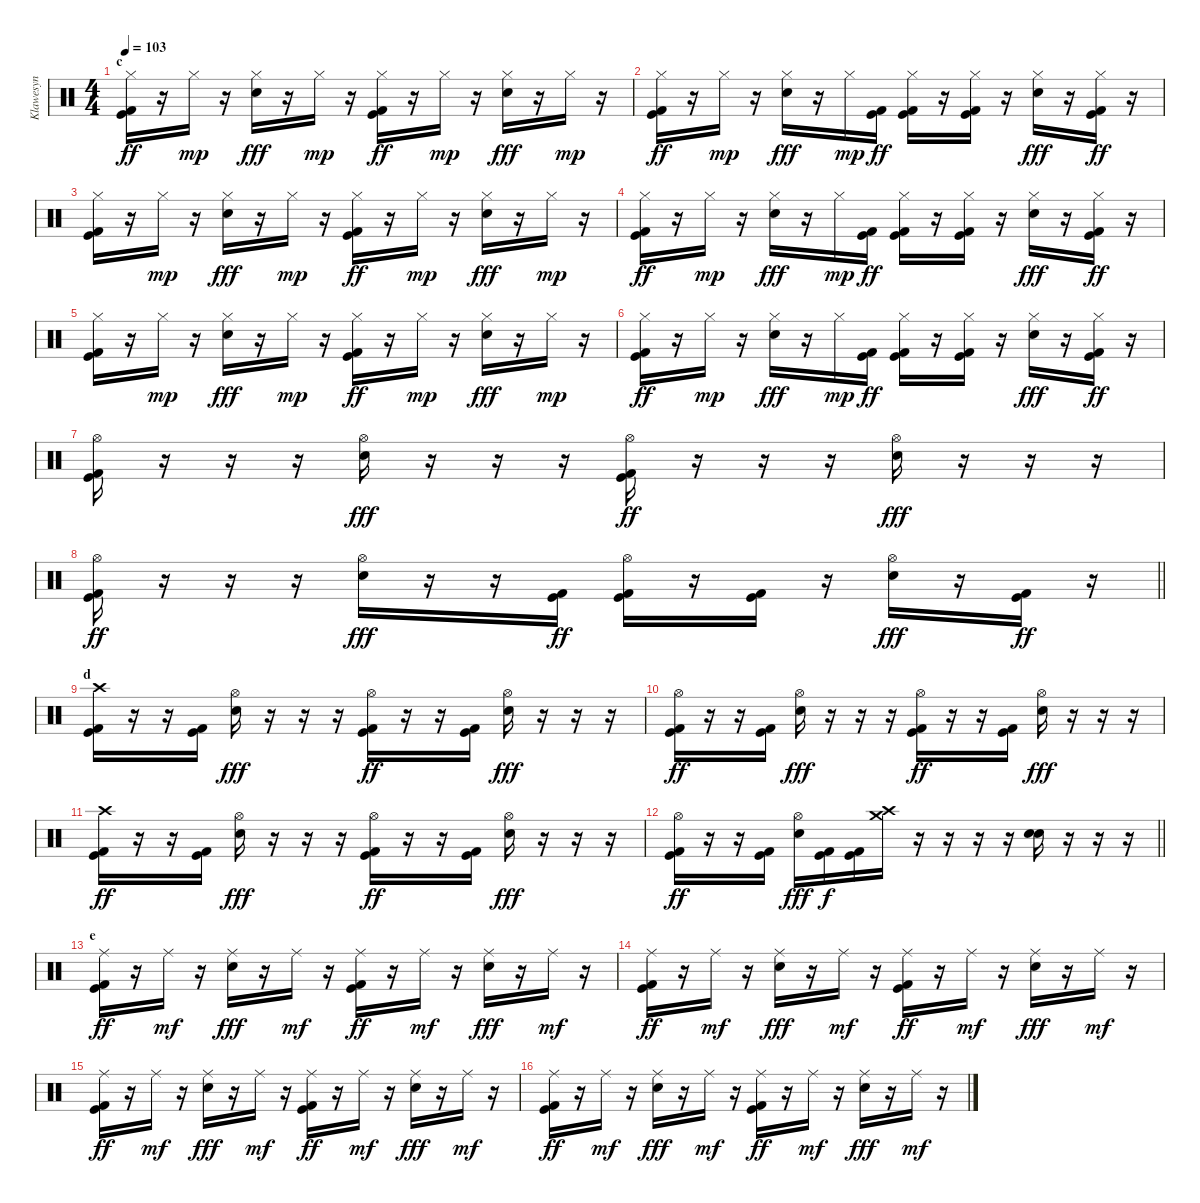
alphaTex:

\track ("Klawesyn" "Klawesyn") {instrument percussion}
\staff {score}
\articulation defaults
\ts (4 4)
\section ("" "c")
\tempo 103
\clef neutral
\ks c
("Hi-Hat (closed)" "Kick (hit)" "Kick (hit) 2").16{dy ff} r.16 "Hi-Hat (closed)".16{dy mp} r.16 ("Hi-Hat (closed)" "Electric Snare (hit)").16{dy fff} r.16 "Hi-Hat (closed)".16{dy mp} r.16 ("Hi-Hat (closed)" "Kick (hit)" "Kick (hit) 2").16{dy ff} r.16 "Hi-Hat (closed)".16{dy mp} r.16 ("Hi-Hat (closed)" "Electric Snare (hit)").16{dy fff} r.16 "Hi-Hat (closed)".16{dy mp} r.16 |
("Hi-Hat (closed)" "Kick (hit)" "Kick (hit) 2").16{dy ff} r.16 "Hi-Hat (closed)".16{dy mp} r.16 ("Hi-Hat (closed)" "Electric Snare (hit)").16{dy fff} r.16 "Hi-Hat (closed)".16{dy mp} ("Kick (hit)" "Kick (hit) 2").16{dy ff} ("Hi-Hat (closed)" "Kick (hit)" "Kick (hit) 2").16 r.16 ("Hi-Hat (closed)" "Kick (hit)" "Kick (hit) 2").16 r.16 ("Hi-Hat (closed)" "Electric Snare (hit)").16{dy fff} r.16 ("Hi-Hat (closed)" "Kick (hit)" "Kick (hit) 2").16{dy ff} r.16 |
("Hi-Hat (closed)" "Kick (hit)" "Kick (hit) 2").16 r.16 "Hi-Hat (closed)".16{dy mp} r.16 ("Hi-Hat (closed)" "Electric Snare (hit)").16{dy fff} r.16 "Hi-Hat (closed)".16{dy mp} r.16 ("Hi-Hat (closed)" "Kick (hit)" "Kick (hit) 2").16{dy ff} r.16 "Hi-Hat (closed)".16{dy mp} r.16 ("Hi-Hat (closed)" "Electric Snare (hit)").16{dy fff} r.16 "Hi-Hat (closed)".16{dy mp} r.16 |
("Hi-Hat (closed)" "Kick (hit)" "Kick (hit) 2").16{dy ff} r.16 "Hi-Hat (closed)".16{dy mp} r.16 ("Hi-Hat (closed)" "Electric Snare (hit)").16{dy fff} r.16 "Hi-Hat (closed)".16{dy mp} ("Kick (hit)" "Kick (hit) 2").16{dy ff} ("Hi-Hat (closed)" "Kick (hit)" "Kick (hit) 2").16 r.16 ("Hi-Hat (closed)" "Kick (hit)" "Kick (hit) 2").16 r.16 ("Hi-Hat (closed)" "Electric Snare (hit)").16{dy fff} r.16 ("Hi-Hat (closed)" "Kick (hit)" "Kick (hit) 2").16{dy ff} r.16 |
("Hi-Hat (closed)" "Kick (hit)" "Kick (hit) 2").16 r.16 "Hi-Hat (closed)".16{dy mp} r.16 ("Hi-Hat (closed)" "Electric Snare (hit)").16{dy fff} r.16 "Hi-Hat (closed)".16{dy mp} r.16 ("Hi-Hat (closed)" "Kick (hit)" "Kick (hit) 2").16{dy ff} r.16 "Hi-Hat (closed)".16{dy mp} r.16 ("Hi-Hat (closed)" "Electric Snare (hit)").16{dy fff} r.16 "Hi-Hat (closed)".16{dy mp} r.16 |
("Hi-Hat (closed)" "Kick (hit)" "Kick (hit) 2").16{dy ff} r.16 "Hi-Hat (closed)".16{dy mp} r.16 ("Hi-Hat (closed)" "Electric Snare (hit)").16{dy fff} r.16 "Hi-Hat (closed)".16{dy mp} ("Kick (hit)" "Kick (hit) 2").16{dy ff} ("Hi-Hat (closed)" "Kick (hit)" "Kick (hit) 2").16 r.16 ("Hi-Hat (closed)" "Kick (hit)" "Kick (hit) 2").16 r.16 ("Hi-Hat (closed)" "Electric Snare (hit)").16{dy fff} r.16 ("Hi-Hat (closed)" "Kick (hit)" "Kick (hit) 2").16{dy ff} r.16 |
("Hi-Hat (open)" "Kick (hit)" "Kick (hit) 2").16 r.16 r.16 r.16 ("Hi-Hat (open)" "Electric Snare (hit)").16{dy fff} r.16 r.16 r.16 ("Hi-Hat (open)" "Kick (hit)" "Kick (hit) 2").16{dy ff} r.16 r.16 r.16 ("Hi-Hat (open)" "Electric Snare (hit)").16{dy fff} r.16 r.16 r.16 |
\barLineRight lightlight
("Hi-Hat (open)" "Kick (hit)" "Kick (hit) 2").16{dy ff} r.16 r.16 r.16 ("Hi-Hat (open)" "Electric Snare (hit)").16{dy fff} r.16 r.16 ("Kick (hit)" "Kick (hit) 2").16{dy ff} ("Hi-Hat (open)" "Kick (hit)" "Kick (hit) 2").16 r.16 ("Kick (hit)" "Kick (hit) 2").16 r.16 ("Hi-Hat (open)" "Electric Snare (hit)").16{dy fff} r.16 ("Kick (hit)" "Kick (hit) 2").16{dy ff} r.16 |
\section ("" "d")
("Crash high (hit)" "Kick (hit)" "Kick (hit) 2").16 r.16 r.16 ("Kick (hit)" "Kick (hit) 2").16 ("Hi-Hat (open)" "Electric Snare (hit)").16{dy fff} r.16 r.16 r.16 ("Hi-Hat (open)" "Kick (hit)" "Kick (hit) 2").16{dy ff} r.16 r.16 ("Kick (hit)" "Kick (hit) 2").16 ("Hi-Hat (open)" "Electric Snare (hit)").16{dy fff} r.16 r.16 r.16 |
("Hi-Hat (open)" "Kick (hit)" "Kick (hit) 2").16{dy ff} r.16 r.16 ("Kick (hit)" "Kick (hit) 2").16 ("Hi-Hat (open)" "Electric Snare (hit)").16{dy fff} r.16 r.16 r.16 ("Hi-Hat (open)" "Kick (hit)" "Kick (hit) 2").16{dy ff} r.16 r.16 ("Kick (hit)" "Kick (hit) 2").16 ("Hi-Hat (open)" "Electric Snare (hit)").16{dy fff} r.16 r.16 r.16 |
("Crash high (hit)" "Kick (hit)" "Kick (hit) 2").16{dy ff} r.16 r.16 ("Kick (hit)" "Kick (hit) 2").16 ("Hi-Hat (open)" "Electric Snare (hit)").16{dy fff} r.16 r.16 r.16 ("Hi-Hat (open)" "Kick (hit)" "Kick (hit) 2").16{dy ff} r.16 r.16 ("Kick (hit)" "Kick (hit) 2").16 ("Hi-Hat (open)" "Electric Snare (hit)").16{dy fff} r.16 r.16 r.16 |
\barLineRight lightlight
("Hi-Hat (open)" "Kick (hit)" "Kick (hit) 2").16{dy ff} r.16 r.16 ("Kick (hit)" "Kick (hit) 2").16 ("Hi-Hat (open)" "Electric Snare (hit)").16{dy fff} ("Kick (hit)" "Kick (hit) 2").16{dy f} ("Kick (hit)" "Kick (hit) 2").16 ("Crash high (hit)" "Crash medium (hit)").16 r.16 r.16 r.16 r.16 ("Electric Snare (hit)" "Snare (hit) 2").16 r.16 r.16 r.16 |
\section ("" "e")
("Ride (middle)" "Kick (hit)" "Kick (hit) 2").16{dy ff} r.16 "Ride (middle)".16{dy mf} r.16 ("Ride (middle)" "Electric Snare (hit)").16{dy fff} r.16 "Ride (middle)".16{dy mf} r.16 ("Ride (middle)" "Kick (hit)" "Kick (hit) 2").16{dy ff} r.16 "Ride (middle)".16{dy mf} r.16 ("Ride (middle)" "Electric Snare (hit)").16{dy fff} r.16 "Ride (middle)".16{dy mf} r.16 |
("Ride (middle)" "Kick (hit)" "Kick (hit) 2").16{dy ff} r.16 "Ride (middle)".16{dy mf} r.16 ("Ride (middle)" "Electric Snare (hit)").16{dy fff} r.16 "Ride (middle)".16{dy mf} r.16 ("Ride (middle)" "Kick (hit)" "Kick (hit) 2").16{dy ff} r.16 "Ride (middle)".16{dy mf} r.16 ("Ride (middle)" "Electric Snare (hit)").16{dy fff} r.16 "Ride (middle)".16{dy mf} r.16 |
("Ride (middle)" "Kick (hit)" "Kick (hit) 2").16{dy ff} r.16 "Ride (middle)".16{dy mf} r.16 ("Ride (middle)" "Electric Snare (hit)").16{dy fff} r.16 "Ride (middle)".16{dy mf} r.16 ("Ride (middle)" "Kick (hit)" "Kick (hit) 2").16{dy ff} r.16 "Ride (middle)".16{dy mf} r.16 ("Ride (middle)" "Electric Snare (hit)").16{dy fff} r.16 "Ride (middle)".16{dy mf} r.16 |
("Ride (middle)" "Kick (hit)" "Kick (hit) 2").16{dy ff} r.16 "Ride (middle)".16{dy mf} r.16 ("Ride (middle)" "Electric Snare (hit)").16{dy fff} r.16 "Ride (middle)".16{dy mf} r.16 ("Ride (middle)" "Kick (hit)" "Kick (hit) 2").16{dy ff} r.16 "Ride (middle)".16{dy mf} r.16 ("Ride (middle)" "Electric Snare (hit)").16{dy fff} r.16 "Ride (middle)".16{dy mf} r.16
